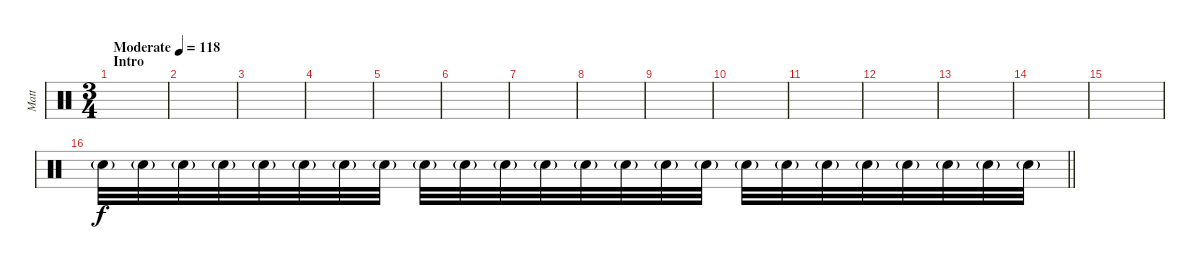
\track ("Matt" "Matt") {instrument percussion}
\staff {score}
\articulation defaults
\ts (3 4)
\section ("" "Intro")
\tempo (118 "Moderate")
\clef neutral
\ks c
|
|
|
|
|
|
|
|
|
|
|
|
|
|
|
\barLineRight lightlight "Snare (hit) 2"{g}.32 "Snare (hit) 2"{g}.32 "Snare (hit) 2"{g}.32 "Snare (hit) 2"{g}.32 "Snare (hit) 2"{g}.32 "Snare (hit) 2"{g}.32 "Snare (hit) 2"{g}.32 "Snare (hit) 2"{g}.32 "Snare (hit) 2"{g}.32 "Snare (hit) 2"{g}.32 "Snare (hit) 2"{g}.32 "Snare (hit) 2"{g}.32 "Snare (hit) 2"{g}.32 "Snare (hit) 2"{g}.32 "Snare (hit) 2"{g}.32 "Snare (hit) 2"{g}.32 "Snare (hit) 2"{g}.32 "Snare (hit) 2"{g}.32 "Snare (hit) 2"{g}.32 "Snare (hit) 2"{g}.32 "Snare (hit) 2"{g}.32 "Snare (hit) 2"{g}.32 "Snare (hit) 2"{g}.32 "Snare (hit) 2"{g}.32
